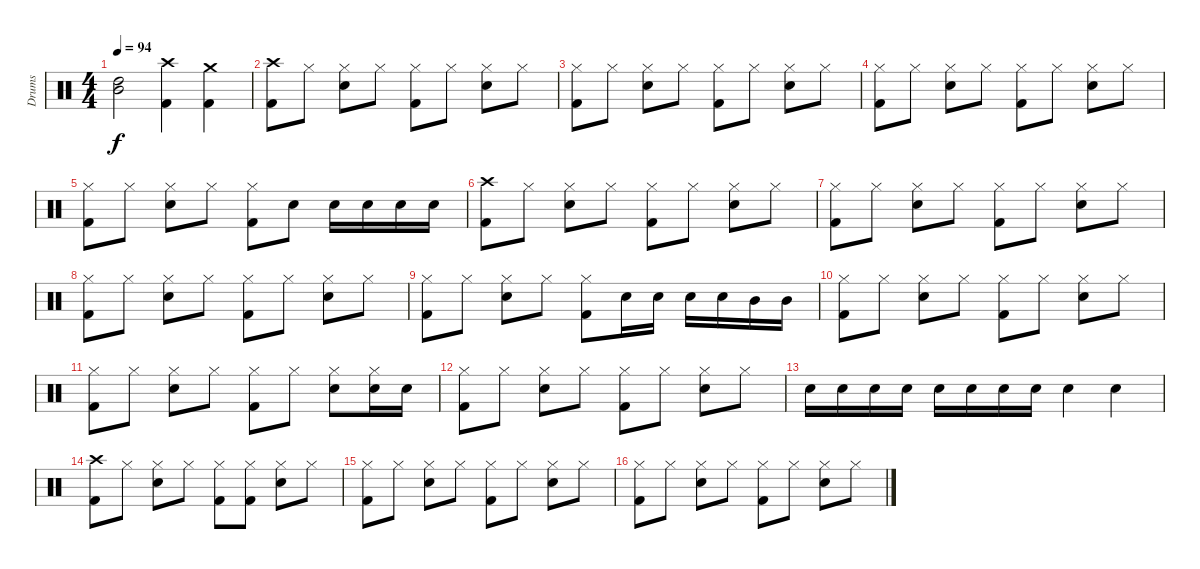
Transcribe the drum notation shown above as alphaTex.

\track ("Drums" "Drums") {instrument percussion}
\staff {score}
\articulation defaults
\ts (4 4)
\tempo 94
\clef neutral
\ks c
("Mid Tom (hit)" "High Tom (hit)").2{dy f} ("Crash high (hit)" "Kick (hit) 2").4 ("Crash medium (hit)" "Kick (hit) 2").4 |
("Crash high (hit)" "Kick (hit) 2").8 "Hi-Hat (closed)".8 ("Hi-Hat (closed)" "Snare (hit) 2").8 "Hi-Hat (closed)".8 ("Hi-Hat (closed)" "Kick (hit) 2").8 "Hi-Hat (closed)".8 ("Hi-Hat (closed)" "Snare (hit) 2").8 "Hi-Hat (closed)".8 |
("Hi-Hat (closed)" "Kick (hit) 2").8 "Hi-Hat (closed)".8 ("Hi-Hat (closed)" "Snare (hit) 2").8 "Hi-Hat (closed)".8 ("Hi-Hat (closed)" "Kick (hit) 2").8 "Hi-Hat (closed)".8 ("Hi-Hat (closed)" "Snare (hit) 2").8 "Hi-Hat (closed)".8 |
("Hi-Hat (closed)" "Kick (hit) 2").8 "Hi-Hat (closed)".8 ("Hi-Hat (closed)" "Snare (hit) 2").8 "Hi-Hat (closed)".8 ("Hi-Hat (closed)" "Kick (hit) 2").8 "Hi-Hat (closed)".8 ("Hi-Hat (closed)" "Snare (hit) 2").8 "Hi-Hat (closed)".8 |
("Hi-Hat (closed)" "Kick (hit) 2").8 "Hi-Hat (closed)".8 ("Hi-Hat (closed)" "Snare (hit) 2").8 "Hi-Hat (closed)".8 ("Hi-Hat (closed)" "Kick (hit) 2").8 "Snare (hit) 2".8 "Snare (hit) 2".16 "Snare (hit) 2".16 "Snare (hit) 2".16 "Snare (hit) 2".16 |
("Crash high (hit)" "Kick (hit) 2").8 "Hi-Hat (closed)".8 ("Hi-Hat (closed)" "Snare (hit) 2").8 "Hi-Hat (closed)".8 ("Hi-Hat (closed)" "Kick (hit) 2").8 "Hi-Hat (closed)".8 ("Hi-Hat (closed)" "Snare (hit) 2").8 "Hi-Hat (closed)".8 |
("Hi-Hat (closed)" "Kick (hit) 2").8 "Hi-Hat (closed)".8 ("Hi-Hat (closed)" "Snare (hit) 2").8 "Hi-Hat (closed)".8 ("Hi-Hat (closed)" "Kick (hit) 2").8 "Hi-Hat (closed)".8 ("Hi-Hat (closed)" "Snare (hit) 2").8 "Hi-Hat (closed)".8 |
("Hi-Hat (closed)" "Kick (hit) 2").8 "Hi-Hat (closed)".8 ("Hi-Hat (closed)" "Snare (hit) 2").8 "Hi-Hat (closed)".8 ("Hi-Hat (closed)" "Kick (hit) 2").8 "Hi-Hat (closed)".8 ("Hi-Hat (closed)" "Snare (hit) 2").8 "Hi-Hat (closed)".8 |
("Hi-Hat (closed)" "Kick (hit) 2").8 "Hi-Hat (closed)".8 ("Hi-Hat (closed)" "Snare (hit) 2").8 "Hi-Hat (closed)".8 ("Hi-Hat (closed)" "Kick (hit) 2").8 "Snare (hit) 2".16 "Snare (hit) 2".16 "Snare (hit) 2".16 "Snare (hit) 2".16 "Mid Tom (hit)".16 "Mid Tom (hit)".16 |
("Hi-Hat (closed)" "Kick (hit) 2").8 "Hi-Hat (closed)".8 ("Hi-Hat (closed)" "Snare (hit) 2").8 "Hi-Hat (closed)".8 ("Hi-Hat (closed)" "Kick (hit) 2").8 "Hi-Hat (closed)".8 ("Hi-Hat (closed)" "Snare (hit) 2").8 "Hi-Hat (closed)".8 |
("Hi-Hat (closed)" "Kick (hit) 2").8 "Hi-Hat (closed)".8 ("Hi-Hat (closed)" "Snare (hit) 2").8 "Hi-Hat (closed)".8 ("Hi-Hat (closed)" "Kick (hit) 2").8 "Hi-Hat (closed)".8 ("Hi-Hat (closed)" "Snare (hit) 2").8 ("Hi-Hat (closed)" "Snare (hit) 2").16 "Snare (hit) 2".16 |
("Hi-Hat (closed)" "Kick (hit) 2").8 "Hi-Hat (closed)".8 ("Hi-Hat (closed)" "Snare (hit) 2").8 "Hi-Hat (closed)".8 ("Hi-Hat (closed)" "Kick (hit) 2").8 "Hi-Hat (closed)".8 ("Hi-Hat (closed)" "Snare (hit) 2").8 "Hi-Hat (closed)".8 |
"Snare (hit) 2".16 "Snare (hit) 2".16 "Snare (hit) 2".16 "Snare (hit) 2".16 "Snare (hit) 2".16 "Snare (hit) 2".16 "Snare (hit) 2".16 "Snare (hit) 2".16 "Snare (hit) 2".4 "Snare (hit) 2".4 |
("Crash high (hit)" "Kick (hit) 2").8 "Hi-Hat (closed)".8 ("Hi-Hat (closed)" "Snare (hit) 2").8 "Hi-Hat (closed)".8 ("Hi-Hat (closed)" "Kick (hit) 2").8 ("Hi-Hat (closed)" "Kick (hit) 2").8 ("Hi-Hat (closed)" "Snare (hit) 2").8 "Hi-Hat (closed)".8 |
("Hi-Hat (closed)" "Kick (hit) 2").8 "Hi-Hat (closed)".8 ("Hi-Hat (closed)" "Snare (hit) 2").8 "Hi-Hat (closed)".8 ("Hi-Hat (closed)" "Kick (hit) 2").8 "Hi-Hat (closed)".8 ("Hi-Hat (closed)" "Snare (hit) 2").8 "Hi-Hat (closed)".8 |
("Hi-Hat (closed)" "Kick (hit) 2").8 "Hi-Hat (closed)".8 ("Hi-Hat (closed)" "Snare (hit) 2").8 "Hi-Hat (closed)".8 ("Hi-Hat (closed)" "Kick (hit) 2").8 "Hi-Hat (closed)".8 ("Hi-Hat (closed)" "Snare (hit) 2").8 "Hi-Hat (closed)".8
